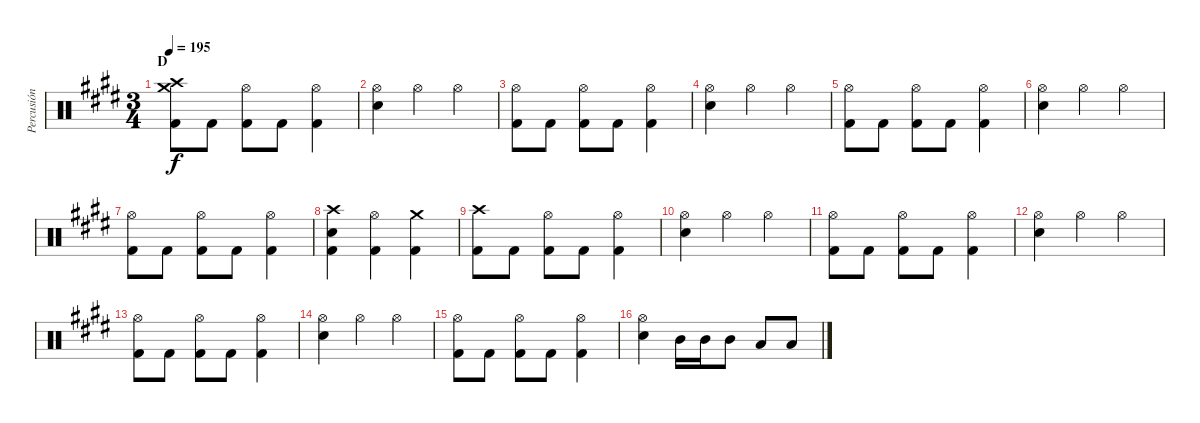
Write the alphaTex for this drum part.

\track ("Percusión" "Percusión") {instrument percussion}
\staff {score}
\articulation defaults
\ts (3 4)
\section ("" "D")
\tempo 195
\clef neutral
\ks e
("Crash high (hit)" "Crash medium (hit)" "Kick (hit) 2").8{dy f} "Kick (hit) 2".8 ("Hi-Hat (open)" "Kick (hit) 2").8 "Kick (hit) 2".8 ("Hi-Hat (open)" "Kick (hit) 2").4 |
("Hi-Hat (open)" "Electric Snare (hit)").4 "Hi-Hat (open)".4 "Hi-Hat (open)".4 |
("Hi-Hat (open)" "Kick (hit) 2").8 "Kick (hit) 2".8 ("Hi-Hat (open)" "Kick (hit) 2").8 "Kick (hit) 2".8 ("Hi-Hat (open)" "Kick (hit) 2").4 |
("Hi-Hat (open)" "Electric Snare (hit)").4 "Hi-Hat (open)".4 "Hi-Hat (open)".4 |
("Hi-Hat (open)" "Kick (hit) 2").8 "Kick (hit) 2".8 ("Hi-Hat (open)" "Kick (hit) 2").8 "Kick (hit) 2".8 ("Hi-Hat (open)" "Kick (hit) 2").4 |
("Hi-Hat (open)" "Electric Snare (hit)").4 "Hi-Hat (open)".4 "Hi-Hat (open)".4 |
("Hi-Hat (open)" "Kick (hit) 2").8 "Kick (hit) 2".8 ("Hi-Hat (open)" "Kick (hit) 2").8 "Kick (hit) 2".8 ("Hi-Hat (open)" "Kick (hit) 2").4 |
("Crash high (hit)" "Electric Snare (hit)" "Kick (hit) 2").4 ("Hi-Hat (open)" "Kick (hit) 2").4 ("Crash medium (hit)" "Kick (hit) 2").4 |
("Crash high (hit)" "Kick (hit) 2").8 "Kick (hit) 2".8 ("Hi-Hat (open)" "Kick (hit) 2").8 "Kick (hit) 2".8 ("Hi-Hat (open)" "Kick (hit) 2").4 |
("Hi-Hat (open)" "Electric Snare (hit)").4 "Hi-Hat (open)".4 "Hi-Hat (open)".4 |
("Hi-Hat (open)" "Kick (hit) 2").8 "Kick (hit) 2".8 ("Hi-Hat (open)" "Kick (hit) 2").8 "Kick (hit) 2".8 ("Hi-Hat (open)" "Kick (hit) 2").4 |
("Hi-Hat (open)" "Electric Snare (hit)").4 "Hi-Hat (open)".4 "Hi-Hat (open)".4 |
("Hi-Hat (open)" "Kick (hit) 2").8 "Kick (hit) 2".8 ("Hi-Hat (open)" "Kick (hit) 2").8 "Kick (hit) 2".8 ("Hi-Hat (open)" "Kick (hit) 2").4 |
("Hi-Hat (open)" "Electric Snare (hit)").4 "Hi-Hat (open)".4 "Hi-Hat (open)".4 |
("Hi-Hat (open)" "Kick (hit) 2").8 "Kick (hit) 2".8 ("Hi-Hat (open)" "Kick (hit) 2").8 "Kick (hit) 2".8 ("Hi-Hat (open)" "Kick (hit) 2").4 |
("Hi-Hat (open)" "Electric Snare (hit)").4 "Mid Tom (hit)".16 "Mid Tom (hit)".16 "Mid Tom (hit)".8 "Low Tom (hit)".8 "Low Tom (hit)".8
